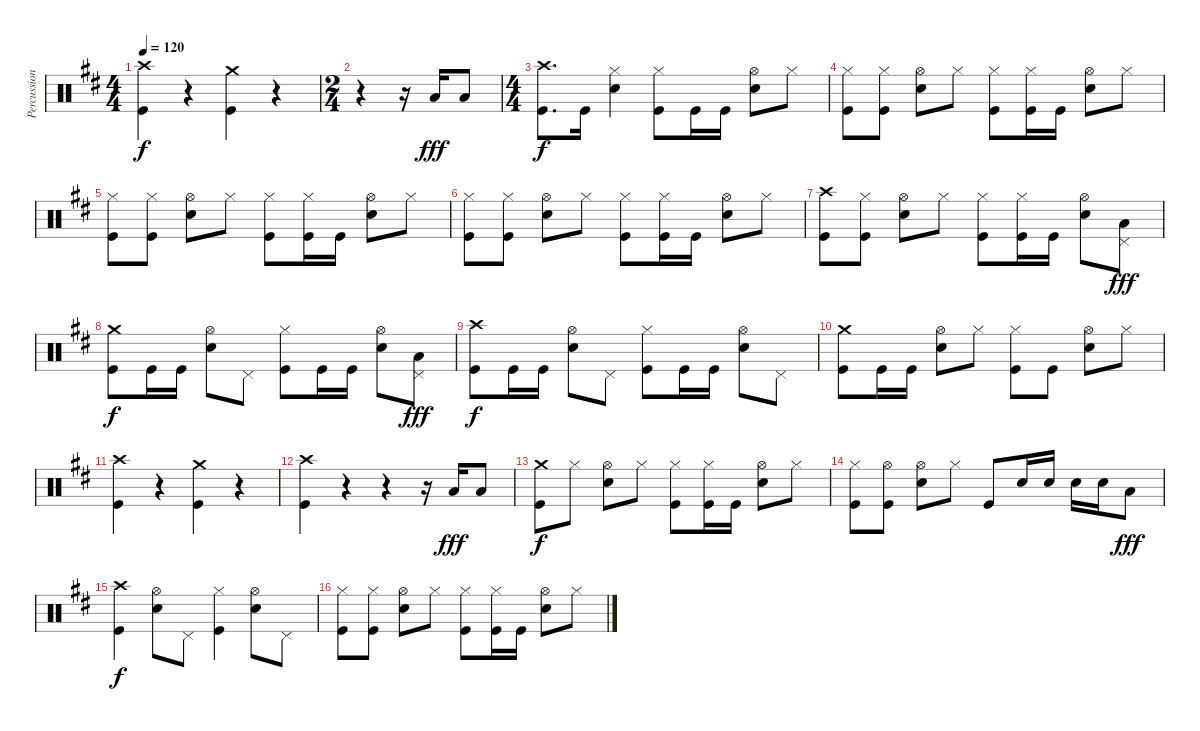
\track ("Percussion" "Percussion") {instrument percussion}
\staff {score}
\articulation defaults
\ts (4 4)
\tempo 120
\clef neutral
\ks d
("Crash high (hit)" "Kick (hit)").4{dy f} r.4 ("Crash medium (hit)" "Kick (hit)").4 r.4 |
\ts (2 4)
r.4 r.16 "Low Tom (hit)".16{dy fff} "Low Tom (hit)".8 |
\ts (4 4)
("Crash high (hit)" "Kick (hit)").8{d dy f} "Kick (hit)".16 ("Hi-Hat (closed)" "Snare (hit) 2").4 ("Hi-Hat (closed)" "Kick (hit)").8 "Kick (hit)".16 "Kick (hit)".16 ("Hi-Hat (open)" "Snare (hit) 2").8 "Hi-Hat (closed)".8 |
("Hi-Hat (closed)" "Kick (hit)").8 ("Hi-Hat (closed)" "Kick (hit)").8 ("Hi-Hat (open)" "Snare (hit) 2").8 "Hi-Hat (closed)".8 ("Hi-Hat (closed)" "Kick (hit)").8 ("Hi-Hat (closed)" "Kick (hit)").16 "Kick (hit)".16 ("Hi-Hat (open)" "Snare (hit) 2").8 "Hi-Hat (closed)".8 |
("Hi-Hat (closed)" "Kick (hit)").8 ("Hi-Hat (closed)" "Kick (hit)").8 ("Hi-Hat (open)" "Snare (hit) 2").8 "Hi-Hat (closed)".8 ("Hi-Hat (closed)" "Kick (hit)").8 ("Hi-Hat (closed)" "Kick (hit)").16 "Kick (hit)".16 ("Hi-Hat (open)" "Snare (hit) 2").8 "Hi-Hat (closed)".8 |
("Hi-Hat (closed)" "Kick (hit)").8 ("Hi-Hat (closed)" "Kick (hit)").8 ("Hi-Hat (open)" "Snare (hit) 2").8 "Hi-Hat (closed)".8 ("Hi-Hat (closed)" "Kick (hit)").8 ("Hi-Hat (closed)" "Kick (hit)").16 "Kick (hit)".16 ("Hi-Hat (open)" "Snare (hit) 2").8 "Hi-Hat (closed)".8 |
("Crash high (hit)" "Kick (hit)").8 ("Hi-Hat (closed)" "Kick (hit)").8 ("Hi-Hat (open)" "Snare (hit) 2").8 "Hi-Hat (closed)".8 ("Hi-Hat (closed)" "Kick (hit)").8 ("Hi-Hat (closed)" "Kick (hit)").16 "Kick (hit)".16 ("Hi-Hat (open)" "Snare (hit) 2").8 ("Pedal Hi-Hat (hit)" "Low Tom (hit)").8{dy fff} |
("Crash medium (hit)" "Kick (hit)").8{dy f} "Kick (hit)".16 "Kick (hit)".16 ("Hi-Hat (open)" "Snare (hit) 2").8 "Pedal Hi-Hat (hit)".8 ("Hi-Hat (closed)" "Kick (hit)").8 "Kick (hit)".16 "Kick (hit)".16 ("Hi-Hat (open)" "Snare (hit) 2").8 ("Pedal Hi-Hat (hit)" "Low Tom (hit)").8{dy fff} |
("Crash high (hit)" "Kick (hit)").8{dy f} "Kick (hit)".16 "Kick (hit)".16 ("Hi-Hat (open)" "Snare (hit) 2").8 "Pedal Hi-Hat (hit)".8 ("Hi-Hat (closed)" "Kick (hit)").8 "Kick (hit)".16 "Kick (hit)".16 ("Hi-Hat (open)" "Snare (hit) 2").8 "Pedal Hi-Hat (hit)".8 |
("Crash medium (hit)" "Kick (hit)").8 "Kick (hit)".16 "Kick (hit)".16 ("Hi-Hat (open)" "Snare (hit) 2").8 "Hi-Hat (closed)".8 ("Hi-Hat (closed)" "Kick (hit)").8 "Kick (hit)".8 ("Hi-Hat (open)" "Snare (hit) 2").8 "Hi-Hat (closed)".8 |
("Crash high (hit)" "Kick (hit)").4 r.4 ("Crash medium (hit)" "Kick (hit)").4 r.4 |
("Crash high (hit)" "Kick (hit)").4 r.4 r.4 r.16 "Low Tom (hit)".16{dy fff} "Low Tom (hit)".8 |
("Crash medium (hit)" "Kick (hit)").8{dy f} "Hi-Hat (closed)".8 ("Hi-Hat (open)" "Snare (hit) 2").8 "Hi-Hat (closed)".8 ("Hi-Hat (closed)" "Kick (hit)").8 ("Hi-Hat (closed)" "Kick (hit)").16 "Kick (hit)".16 ("Hi-Hat (open)" "Snare (hit) 2").8 "Hi-Hat (closed)".8 |
("Hi-Hat (closed)" "Kick (hit)").8 ("Hi-Hat (open)" "Kick (hit)").8 ("Hi-Hat (open)" "Snare (hit) 2").8 "Hi-Hat (closed)".8 "Kick (hit)".8 "Snare (hit) 2".16 "Snare (hit) 2".16 "Snare (hit) 2".16 "Snare (hit) 2".16 "Low Tom (hit)".8{dy fff} |
("Crash high (hit)" "Kick (hit)").4{dy f} ("Hi-Hat (open)" "Snare (hit) 2").8 "Pedal Hi-Hat (hit)".8 ("Hi-Hat (closed)" "Kick (hit)").4 ("Hi-Hat (open)" "Snare (hit) 2").8 "Pedal Hi-Hat (hit)".8 |
("Hi-Hat (closed)" "Kick (hit)").8 ("Hi-Hat (closed)" "Kick (hit)").8 ("Hi-Hat (open)" "Snare (hit) 2").8 "Hi-Hat (closed)".8 ("Hi-Hat (closed)" "Kick (hit)").8 ("Hi-Hat (closed)" "Kick (hit)").16 "Kick (hit)".16 ("Hi-Hat (open)" "Snare (hit) 2").8 "Hi-Hat (closed)".8
